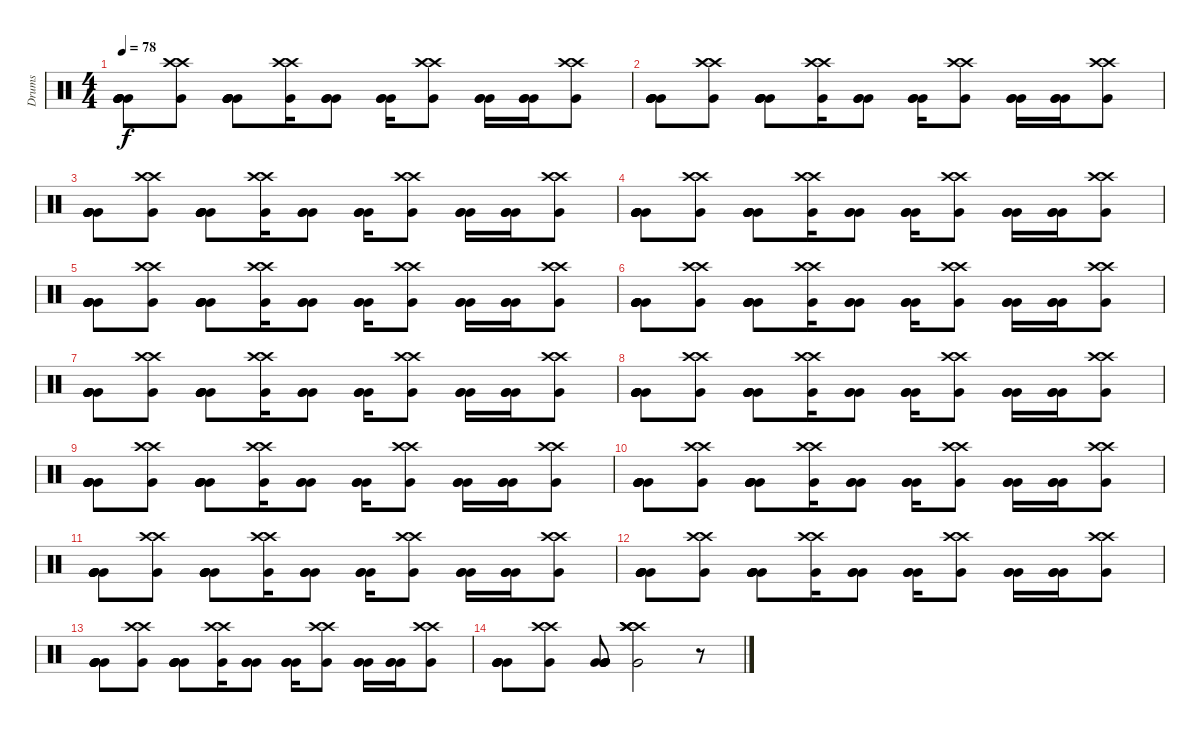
\track ("Drums" "Drums") {instrument percussion}
\staff {score}
\articulation defaults
\ts (4 4)
\tempo 78
\clef neutral
\ks c
("Very Low Tom (hit)" "Very Low Tom (hit)" "Very Low Tom (hit)" "Very Low Tom (hit)" "Very Low Tom (hit)").8{dy f} ("Crash high (hit)" "Crash high (hit)" "Very Low Tom (hit)").8 ("Very Low Tom (hit)" "Very Low Tom (hit)" "Very Low Tom (hit)" "Very Low Tom (hit)" "Very Low Tom (hit)").8 ("Crash high (hit)" "Crash high (hit)" "Very Low Tom (hit)").16 ("Very Low Tom (hit)" "Very Low Tom (hit)" "Very Low Tom (hit)").8 ("Very Low Tom (hit)" "Very Low Tom (hit)" "Very Low Tom (hit)").16 ("Crash high (hit)" "Crash high (hit)" "Very Low Tom (hit)").8 ("Very Low Tom (hit)" "Very Low Tom (hit)" "Very Low Tom (hit)").16 ("Very Low Tom (hit)" "Very Low Tom (hit)" "Very Low Tom (hit)").16 ("Crash high (hit)" "Crash high (hit)" "Very Low Tom (hit)").8 |
("Very Low Tom (hit)" "Very Low Tom (hit)" "Very Low Tom (hit)" "Very Low Tom (hit)" "Very Low Tom (hit)").8 ("Crash high (hit)" "Crash high (hit)" "Very Low Tom (hit)").8 ("Very Low Tom (hit)" "Very Low Tom (hit)" "Very Low Tom (hit)" "Very Low Tom (hit)" "Very Low Tom (hit)").8 ("Crash high (hit)" "Crash high (hit)" "Very Low Tom (hit)").16 ("Very Low Tom (hit)" "Very Low Tom (hit)" "Very Low Tom (hit)").8 ("Very Low Tom (hit)" "Very Low Tom (hit)" "Very Low Tom (hit)").16 ("Crash high (hit)" "Crash high (hit)" "Very Low Tom (hit)").8 ("Very Low Tom (hit)" "Very Low Tom (hit)" "Very Low Tom (hit)").16 ("Very Low Tom (hit)" "Very Low Tom (hit)" "Very Low Tom (hit)").16 ("Crash high (hit)" "Crash high (hit)" "Very Low Tom (hit)").8 |
("Very Low Tom (hit)" "Very Low Tom (hit)" "Very Low Tom (hit)" "Very Low Tom (hit)" "Very Low Tom (hit)").8 ("Crash high (hit)" "Crash high (hit)" "Very Low Tom (hit)").8 ("Very Low Tom (hit)" "Very Low Tom (hit)" "Very Low Tom (hit)" "Very Low Tom (hit)" "Very Low Tom (hit)").8 ("Crash high (hit)" "Crash high (hit)" "Very Low Tom (hit)").16 ("Very Low Tom (hit)" "Very Low Tom (hit)" "Very Low Tom (hit)").8 ("Very Low Tom (hit)" "Very Low Tom (hit)" "Very Low Tom (hit)").16 ("Crash high (hit)" "Crash high (hit)" "Very Low Tom (hit)").8 ("Very Low Tom (hit)" "Very Low Tom (hit)" "Very Low Tom (hit)").16 ("Very Low Tom (hit)" "Very Low Tom (hit)" "Very Low Tom (hit)").16 ("Crash high (hit)" "Crash high (hit)" "Very Low Tom (hit)").8 |
("Very Low Tom (hit)" "Very Low Tom (hit)" "Very Low Tom (hit)" "Very Low Tom (hit)" "Very Low Tom (hit)").8 ("Crash high (hit)" "Crash high (hit)" "Very Low Tom (hit)").8 ("Very Low Tom (hit)" "Very Low Tom (hit)" "Very Low Tom (hit)" "Very Low Tom (hit)" "Very Low Tom (hit)").8 ("Crash high (hit)" "Crash high (hit)" "Very Low Tom (hit)").16 ("Very Low Tom (hit)" "Very Low Tom (hit)" "Very Low Tom (hit)").8 ("Very Low Tom (hit)" "Very Low Tom (hit)" "Very Low Tom (hit)").16 ("Crash high (hit)" "Crash high (hit)" "Very Low Tom (hit)").8 ("Very Low Tom (hit)" "Very Low Tom (hit)" "Very Low Tom (hit)").16 ("Very Low Tom (hit)" "Very Low Tom (hit)" "Very Low Tom (hit)").16 ("Crash high (hit)" "Crash high (hit)" "Very Low Tom (hit)").8 |
("Very Low Tom (hit)" "Very Low Tom (hit)" "Very Low Tom (hit)" "Very Low Tom (hit)" "Very Low Tom (hit)").8 ("Crash high (hit)" "Crash high (hit)" "Very Low Tom (hit)").8 ("Very Low Tom (hit)" "Very Low Tom (hit)" "Very Low Tom (hit)" "Very Low Tom (hit)" "Very Low Tom (hit)").8 ("Crash high (hit)" "Crash high (hit)" "Very Low Tom (hit)").16 ("Very Low Tom (hit)" "Very Low Tom (hit)" "Very Low Tom (hit)").8 ("Very Low Tom (hit)" "Very Low Tom (hit)" "Very Low Tom (hit)").16 ("Crash high (hit)" "Crash high (hit)" "Very Low Tom (hit)").8 ("Very Low Tom (hit)" "Very Low Tom (hit)" "Very Low Tom (hit)").16 ("Very Low Tom (hit)" "Very Low Tom (hit)" "Very Low Tom (hit)").16 ("Crash high (hit)" "Crash high (hit)" "Very Low Tom (hit)").8 |
("Very Low Tom (hit)" "Very Low Tom (hit)" "Very Low Tom (hit)" "Very Low Tom (hit)" "Very Low Tom (hit)").8 ("Crash high (hit)" "Crash high (hit)" "Very Low Tom (hit)").8 ("Very Low Tom (hit)" "Very Low Tom (hit)" "Very Low Tom (hit)" "Very Low Tom (hit)" "Very Low Tom (hit)").8 ("Crash high (hit)" "Crash high (hit)" "Very Low Tom (hit)").16 ("Very Low Tom (hit)" "Very Low Tom (hit)" "Very Low Tom (hit)").8 ("Very Low Tom (hit)" "Very Low Tom (hit)" "Very Low Tom (hit)").16 ("Crash high (hit)" "Crash high (hit)" "Very Low Tom (hit)").8 ("Very Low Tom (hit)" "Very Low Tom (hit)" "Very Low Tom (hit)").16 ("Very Low Tom (hit)" "Very Low Tom (hit)" "Very Low Tom (hit)").16 ("Crash high (hit)" "Crash high (hit)" "Very Low Tom (hit)").8 |
("Very Low Tom (hit)" "Very Low Tom (hit)" "Very Low Tom (hit)" "Very Low Tom (hit)" "Very Low Tom (hit)").8 ("Crash high (hit)" "Crash high (hit)" "Very Low Tom (hit)").8 ("Very Low Tom (hit)" "Very Low Tom (hit)" "Very Low Tom (hit)" "Very Low Tom (hit)" "Very Low Tom (hit)").8 ("Crash high (hit)" "Crash high (hit)" "Very Low Tom (hit)").16 ("Very Low Tom (hit)" "Very Low Tom (hit)" "Very Low Tom (hit)").8 ("Very Low Tom (hit)" "Very Low Tom (hit)" "Very Low Tom (hit)").16 ("Crash high (hit)" "Crash high (hit)" "Very Low Tom (hit)").8 ("Very Low Tom (hit)" "Very Low Tom (hit)" "Very Low Tom (hit)").16 ("Very Low Tom (hit)" "Very Low Tom (hit)" "Very Low Tom (hit)").16 ("Crash high (hit)" "Crash high (hit)" "Very Low Tom (hit)").8 |
("Very Low Tom (hit)" "Very Low Tom (hit)" "Very Low Tom (hit)" "Very Low Tom (hit)" "Very Low Tom (hit)").8 ("Crash high (hit)" "Crash high (hit)" "Very Low Tom (hit)").8 ("Very Low Tom (hit)" "Very Low Tom (hit)" "Very Low Tom (hit)" "Very Low Tom (hit)" "Very Low Tom (hit)").8 ("Crash high (hit)" "Crash high (hit)" "Very Low Tom (hit)").16 ("Very Low Tom (hit)" "Very Low Tom (hit)" "Very Low Tom (hit)").8 ("Very Low Tom (hit)" "Very Low Tom (hit)" "Very Low Tom (hit)").16 ("Crash high (hit)" "Crash high (hit)" "Very Low Tom (hit)").8 ("Very Low Tom (hit)" "Very Low Tom (hit)" "Very Low Tom (hit)").16 ("Very Low Tom (hit)" "Very Low Tom (hit)" "Very Low Tom (hit)").16 ("Crash high (hit)" "Crash high (hit)" "Very Low Tom (hit)").8 |
("Very Low Tom (hit)" "Very Low Tom (hit)" "Very Low Tom (hit)" "Very Low Tom (hit)" "Very Low Tom (hit)").8 ("Crash high (hit)" "Crash high (hit)" "Very Low Tom (hit)").8 ("Very Low Tom (hit)" "Very Low Tom (hit)" "Very Low Tom (hit)" "Very Low Tom (hit)" "Very Low Tom (hit)").8 ("Crash high (hit)" "Crash high (hit)" "Very Low Tom (hit)").16 ("Very Low Tom (hit)" "Very Low Tom (hit)" "Very Low Tom (hit)").8 ("Very Low Tom (hit)" "Very Low Tom (hit)" "Very Low Tom (hit)").16 ("Crash high (hit)" "Crash high (hit)" "Very Low Tom (hit)").8 ("Very Low Tom (hit)" "Very Low Tom (hit)" "Very Low Tom (hit)").16 ("Very Low Tom (hit)" "Very Low Tom (hit)" "Very Low Tom (hit)").16 ("Crash high (hit)" "Crash high (hit)" "Very Low Tom (hit)").8 |
("Very Low Tom (hit)" "Very Low Tom (hit)" "Very Low Tom (hit)" "Very Low Tom (hit)" "Very Low Tom (hit)").8 ("Crash high (hit)" "Crash high (hit)" "Very Low Tom (hit)").8 ("Very Low Tom (hit)" "Very Low Tom (hit)" "Very Low Tom (hit)" "Very Low Tom (hit)" "Very Low Tom (hit)").8 ("Crash high (hit)" "Crash high (hit)" "Very Low Tom (hit)").16 ("Very Low Tom (hit)" "Very Low Tom (hit)" "Very Low Tom (hit)").8 ("Very Low Tom (hit)" "Very Low Tom (hit)" "Very Low Tom (hit)").16 ("Crash high (hit)" "Crash high (hit)" "Very Low Tom (hit)").8 ("Very Low Tom (hit)" "Very Low Tom (hit)" "Very Low Tom (hit)").16 ("Very Low Tom (hit)" "Very Low Tom (hit)" "Very Low Tom (hit)").16 ("Crash high (hit)" "Crash high (hit)" "Very Low Tom (hit)").8 |
("Very Low Tom (hit)" "Very Low Tom (hit)" "Very Low Tom (hit)" "Very Low Tom (hit)" "Very Low Tom (hit)").8 ("Crash high (hit)" "Crash high (hit)" "Very Low Tom (hit)").8 ("Very Low Tom (hit)" "Very Low Tom (hit)" "Very Low Tom (hit)" "Very Low Tom (hit)" "Very Low Tom (hit)").8 ("Crash high (hit)" "Crash high (hit)" "Very Low Tom (hit)").16 ("Very Low Tom (hit)" "Very Low Tom (hit)" "Very Low Tom (hit)").8 ("Very Low Tom (hit)" "Very Low Tom (hit)" "Very Low Tom (hit)").16 ("Crash high (hit)" "Crash high (hit)" "Very Low Tom (hit)").8 ("Very Low Tom (hit)" "Very Low Tom (hit)" "Very Low Tom (hit)").16 ("Very Low Tom (hit)" "Very Low Tom (hit)" "Very Low Tom (hit)").16 ("Crash high (hit)" "Crash high (hit)" "Very Low Tom (hit)").8 |
("Very Low Tom (hit)" "Very Low Tom (hit)" "Very Low Tom (hit)" "Very Low Tom (hit)" "Very Low Tom (hit)").8 ("Crash high (hit)" "Crash high (hit)" "Very Low Tom (hit)").8 ("Very Low Tom (hit)" "Very Low Tom (hit)" "Very Low Tom (hit)" "Very Low Tom (hit)" "Very Low Tom (hit)").8 ("Crash high (hit)" "Crash high (hit)" "Very Low Tom (hit)").16 ("Very Low Tom (hit)" "Very Low Tom (hit)" "Very Low Tom (hit)").8 ("Very Low Tom (hit)" "Very Low Tom (hit)" "Very Low Tom (hit)").16 ("Crash high (hit)" "Crash high (hit)" "Very Low Tom (hit)").8 ("Very Low Tom (hit)" "Very Low Tom (hit)" "Very Low Tom (hit)").16 ("Very Low Tom (hit)" "Very Low Tom (hit)" "Very Low Tom (hit)").16 ("Crash high (hit)" "Crash high (hit)" "Very Low Tom (hit)").8 |
("Very Low Tom (hit)" "Very Low Tom (hit)" "Very Low Tom (hit)" "Very Low Tom (hit)" "Very Low Tom (hit)").8 ("Crash high (hit)" "Crash high (hit)" "Very Low Tom (hit)").8 ("Very Low Tom (hit)" "Very Low Tom (hit)" "Very Low Tom (hit)" "Very Low Tom (hit)" "Very Low Tom (hit)").8 ("Crash high (hit)" "Crash high (hit)" "Very Low Tom (hit)").16 ("Very Low Tom (hit)" "Very Low Tom (hit)" "Very Low Tom (hit)").8 ("Very Low Tom (hit)" "Very Low Tom (hit)" "Very Low Tom (hit)").16 ("Crash high (hit)" "Crash high (hit)" "Very Low Tom (hit)").8 ("Very Low Tom (hit)" "Very Low Tom (hit)" "Very Low Tom (hit)").16 ("Very Low Tom (hit)" "Very Low Tom (hit)" "Very Low Tom (hit)").16 ("Crash high (hit)" "Crash high (hit)" "Very Low Tom (hit)").8 |
("Very Low Tom (hit)" "Very Low Tom (hit)" "Very Low Tom (hit)" "Very Low Tom (hit)" "Very Low Tom (hit)").8 ("Crash high (hit)" "Crash high (hit)" "Very Low Tom (hit)").8 ("Very Low Tom (hit)" "Very Low Tom (hit)" "Very Low Tom (hit)" "Very Low Tom (hit)" "Very Low Tom (hit)").8 ("Very Low Tom (hit)" "Crash high (hit)" "Crash high (hit)" "Crash high (hit)" "Crash high (hit)").2 r.8
